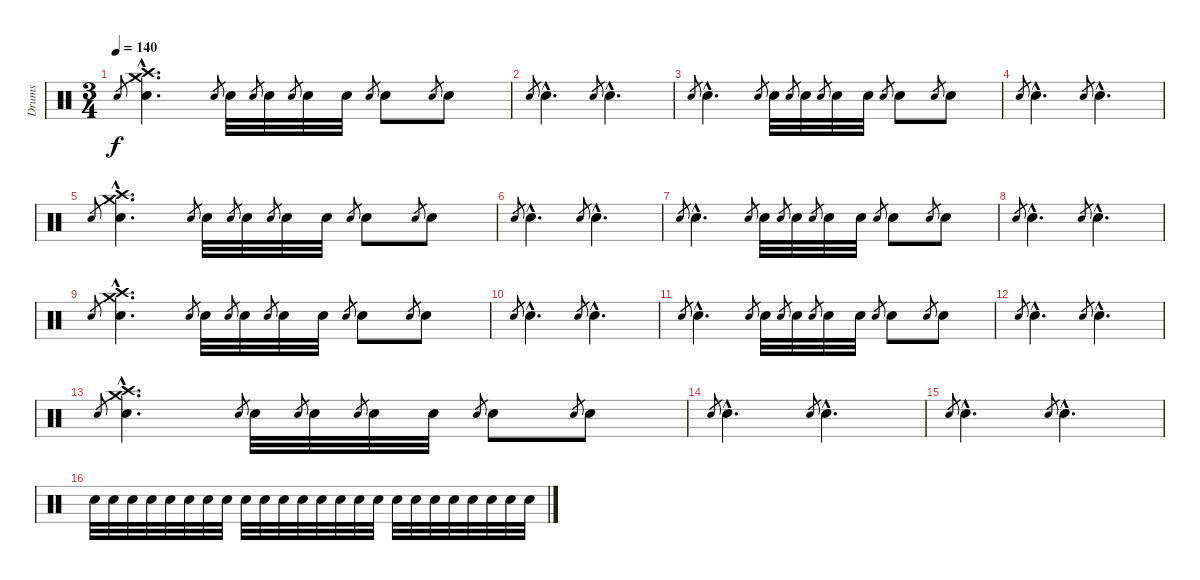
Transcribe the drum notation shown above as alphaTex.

\track ("Drums" "Drums") {instrument percussion}
\staff {score}
\articulation defaults
\ts (3 4)
\tempo 140
\clef neutral
\ks c "Snare (hit) 2".8{gr dy f}
("Crash high (hit)"{hac} "Crash medium (hit)"{hac} "Snare (hit) 2"{hac}).4{d} "Snare (hit) 2".8{gr} "Snare (hit) 2".32 "Snare (hit) 2".8{gr} "Snare (hit) 2".32 "Snare (hit) 2".8{gr} "Snare (hit) 2".32 "Snare (hit) 2".32 "Snare (hit) 2".8{gr} "Snare (hit) 2".8 "Snare (hit) 2".8{gr} "Snare (hit) 2".8 |
"Snare (hit) 2".8{gr} "Snare (hit) 2"{hac}.4{d} "Snare (hit) 2".8{gr} "Snare (hit) 2"{hac}.4{d} |
"Snare (hit) 2".8{gr} "Snare (hit) 2"{hac}.4{d} "Snare (hit) 2".8{gr} "Snare (hit) 2".32 "Snare (hit) 2".8{gr} "Snare (hit) 2".32 "Snare (hit) 2".8{gr} "Snare (hit) 2".32 "Snare (hit) 2".32 "Snare (hit) 2".8{gr} "Snare (hit) 2".8 "Snare (hit) 2".8{gr} "Snare (hit) 2".8 |
"Snare (hit) 2".8{gr} "Snare (hit) 2"{hac}.4{d} "Snare (hit) 2".8{gr} "Snare (hit) 2"{hac}.4{d} |
"Snare (hit) 2".8{gr} ("Crash high (hit)"{hac} "Crash medium (hit)"{hac} "Snare (hit) 2"{hac}).4{d} "Snare (hit) 2".8{gr} "Snare (hit) 2".32 "Snare (hit) 2".8{gr} "Snare (hit) 2".32 "Snare (hit) 2".8{gr} "Snare (hit) 2".32 "Snare (hit) 2".32 "Snare (hit) 2".8{gr} "Snare (hit) 2".8 "Snare (hit) 2".8{gr} "Snare (hit) 2".8 |
"Snare (hit) 2".8{gr} "Snare (hit) 2"{hac}.4{d} "Snare (hit) 2".8{gr} "Snare (hit) 2"{hac}.4{d} |
"Snare (hit) 2".8{gr} "Snare (hit) 2"{hac}.4{d} "Snare (hit) 2".8{gr} "Snare (hit) 2".32 "Snare (hit) 2".8{gr} "Snare (hit) 2".32 "Snare (hit) 2".8{gr} "Snare (hit) 2".32 "Snare (hit) 2".32 "Snare (hit) 2".8{gr} "Snare (hit) 2".8 "Snare (hit) 2".8{gr} "Snare (hit) 2".8 |
"Snare (hit) 2".8{gr} "Snare (hit) 2"{hac}.4{d} "Snare (hit) 2".8{gr} "Snare (hit) 2"{hac}.4{d} |
"Snare (hit) 2".8{gr} ("Crash high (hit)"{hac} "Crash medium (hit)"{hac} "Snare (hit) 2"{hac}).4{d} "Snare (hit) 2".8{gr} "Snare (hit) 2".32 "Snare (hit) 2".8{gr} "Snare (hit) 2".32 "Snare (hit) 2".8{gr} "Snare (hit) 2".32 "Snare (hit) 2".32 "Snare (hit) 2".8{gr} "Snare (hit) 2".8 "Snare (hit) 2".8{gr} "Snare (hit) 2".8 |
"Snare (hit) 2".8{gr} "Snare (hit) 2"{hac}.4{d} "Snare (hit) 2".8{gr} "Snare (hit) 2"{hac}.4{d} |
"Snare (hit) 2".8{gr} "Snare (hit) 2"{hac}.4{d} "Snare (hit) 2".8{gr} "Snare (hit) 2".32 "Snare (hit) 2".8{gr} "Snare (hit) 2".32 "Snare (hit) 2".8{gr} "Snare (hit) 2".32 "Snare (hit) 2".32 "Snare (hit) 2".8{gr} "Snare (hit) 2".8 "Snare (hit) 2".8{gr} "Snare (hit) 2".8 |
"Snare (hit) 2".8{gr} "Snare (hit) 2"{hac}.4{d} "Snare (hit) 2".8{gr} "Snare (hit) 2"{hac}.4{d} |
"Snare (hit) 2".8{gr} ("Crash high (hit)"{hac} "Crash medium (hit)"{hac} "Snare (hit) 2"{hac}).4{d} "Snare (hit) 2".8{gr} "Snare (hit) 2".32 "Snare (hit) 2".8{gr} "Snare (hit) 2".32 "Snare (hit) 2".8{gr} "Snare (hit) 2".32 "Snare (hit) 2".32 "Snare (hit) 2".8{gr} "Snare (hit) 2".8 "Snare (hit) 2".8{gr} "Snare (hit) 2".8 |
"Snare (hit) 2".8{gr} "Snare (hit) 2"{hac}.4{d} "Snare (hit) 2".8{gr} "Snare (hit) 2"{hac}.4{d} |
"Snare (hit) 2".8{gr} "Snare (hit) 2"{hac}.4{d} "Snare (hit) 2".8{gr} "Snare (hit) 2"{hac}.4{d} |
"Snare (hit) 2".32 "Snare (hit) 2".32 "Snare (hit) 2".32 "Snare (hit) 2".32 "Snare (hit) 2".32 "Snare (hit) 2".32 "Snare (hit) 2".32 "Snare (hit) 2".32 "Snare (hit) 2".32 "Snare (hit) 2".32 "Snare (hit) 2".32 "Snare (hit) 2".32 "Snare (hit) 2".32 "Snare (hit) 2".32 "Snare (hit) 2".32 "Snare (hit) 2".32 "Snare (hit) 2".32 "Snare (hit) 2".32 "Snare (hit) 2".32 "Snare (hit) 2".32 "Snare (hit) 2".32 "Snare (hit) 2".32 "Snare (hit) 2".32 "Snare (hit) 2".32
